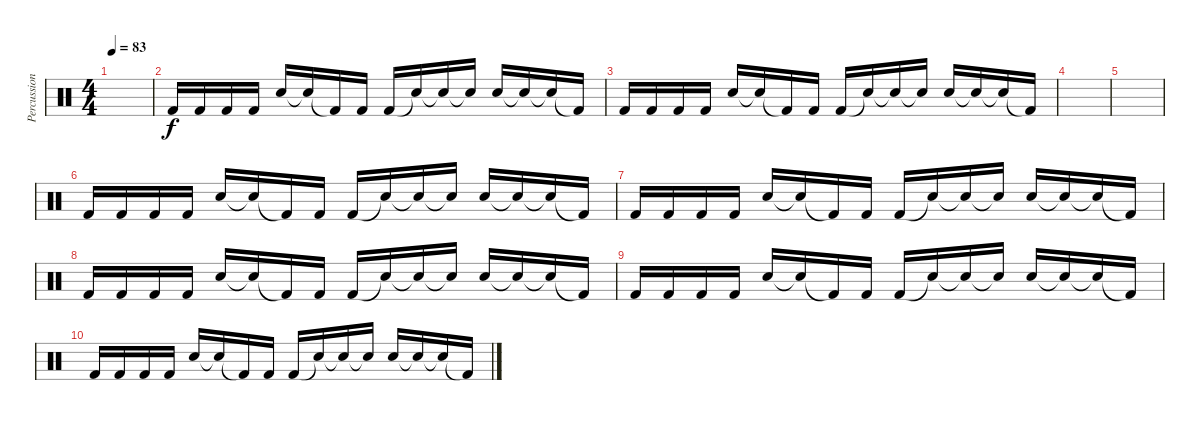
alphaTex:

\track ("Percussion" "Percussion") {instrument percussion}
\staff {score}
\articulation defaults
\ts (4 4)
\tempo 83
\clef neutral
\ks c
|
"Kick (hit) 2".16 "Kick (hit) 2".16 "Kick (hit) 2".16 "Kick (hit) 2".16 "Snare (hit) 2".16 "Snare (hit)"{t}.16 "Kick (hit) 2"{t}.16 "Kick (hit) 2".16 "Kick (hit) 2".16 "Snare (hit)"{t}.16 "Snare (hit)"{t}.16 "Snare (hit)"{t}.16 "Snare (hit) 2".16 "Snare (hit)"{t}.16 "Snare (hit)"{t}.16 "Kick (hit) 2"{t}.16 |
"Kick (hit) 2".16 "Kick (hit) 2".16 "Kick (hit) 2".16 "Kick (hit) 2".16 "Snare (hit) 2".16 "Snare (hit)"{t}.16 "Kick (hit) 2"{t}.16 "Kick (hit) 2".16 "Kick (hit) 2".16 "Snare (hit)"{t}.16 "Snare (hit)"{t}.16 "Snare (hit)"{t}.16 "Snare (hit) 2".16 "Snare (hit)"{t}.16 "Snare (hit)"{t}.16 "Kick (hit) 2"{t}.16 |
|
|
"Kick (hit) 2".16 "Kick (hit) 2".16 "Kick (hit) 2".16 "Kick (hit) 2".16 "Snare (hit) 2".16 "Snare (hit)"{t}.16 "Kick (hit) 2"{t}.16 "Kick (hit) 2".16 "Kick (hit) 2".16 "Snare (hit)"{t}.16 "Snare (hit)"{t}.16 "Snare (hit)"{t}.16 "Snare (hit) 2".16 "Snare (hit)"{t}.16 "Snare (hit)"{t}.16 "Kick (hit) 2"{t}.16 |
"Kick (hit) 2".16 "Kick (hit) 2".16 "Kick (hit) 2".16 "Kick (hit) 2".16 "Snare (hit) 2".16 "Snare (hit)"{t}.16 "Kick (hit) 2"{t}.16 "Kick (hit) 2".16 "Kick (hit) 2".16 "Snare (hit)"{t}.16 "Snare (hit)"{t}.16 "Snare (hit)"{t}.16 "Snare (hit) 2".16 "Snare (hit)"{t}.16 "Snare (hit)"{t}.16 "Kick (hit) 2"{t}.16 |
"Kick (hit) 2".16 "Kick (hit) 2".16 "Kick (hit) 2".16 "Kick (hit) 2".16 "Snare (hit) 2".16 "Snare (hit)"{t}.16 "Kick (hit) 2"{t}.16 "Kick (hit) 2".16 "Kick (hit) 2".16 "Snare (hit)"{t}.16 "Snare (hit)"{t}.16 "Snare (hit)"{t}.16 "Snare (hit) 2".16 "Snare (hit)"{t}.16 "Snare (hit)"{t}.16 "Kick (hit) 2"{t}.16 |
"Kick (hit) 2".16 "Kick (hit) 2".16 "Kick (hit) 2".16 "Kick (hit) 2".16 "Snare (hit) 2".16 "Snare (hit)"{t}.16 "Kick (hit) 2"{t}.16 "Kick (hit) 2".16 "Kick (hit) 2".16 "Snare (hit)"{t}.16 "Snare (hit)"{t}.16 "Snare (hit)"{t}.16 "Snare (hit) 2".16 "Snare (hit)"{t}.16 "Snare (hit)"{t}.16 "Kick (hit) 2"{t}.16 |
"Kick (hit) 2".16 "Kick (hit) 2".16 "Kick (hit) 2".16 "Kick (hit) 2".16 "Snare (hit) 2".16 "Snare (hit)"{t}.16 "Kick (hit) 2"{t}.16 "Kick (hit) 2".16 "Kick (hit) 2".16 "Snare (hit)"{t}.16 "Snare (hit)"{t}.16 "Snare (hit)"{t}.16 "Snare (hit) 2".16 "Snare (hit)"{t}.16 "Snare (hit)"{t}.16 "Kick (hit) 2"{t}.16
